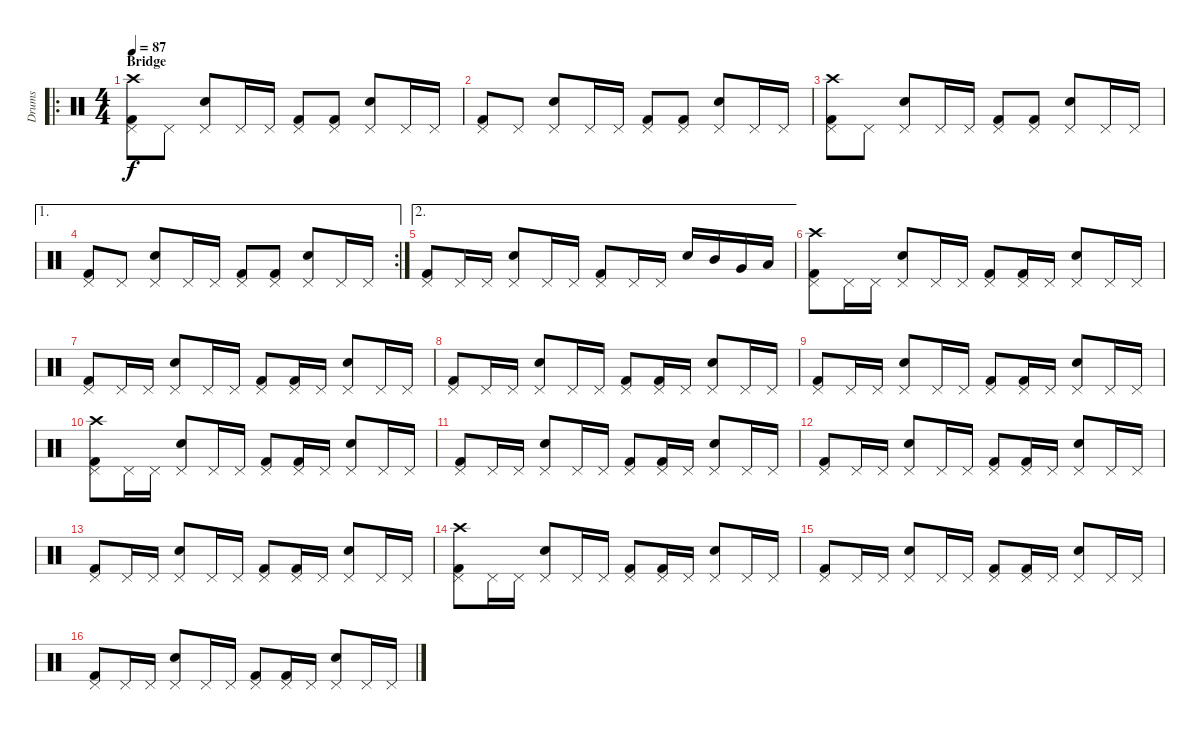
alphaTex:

\track ("Drums" "Drums") {instrument percussion}
\staff {score}
\articulation defaults
\ro
\ts (4 4)
\section ("" "Bridge")
\tempo 87
\clef neutral
\ks c
("Kick (hit) 2" "Pedal Hi-Hat (hit)" "Crash high (hit)").8{dy f} "Pedal Hi-Hat (hit)".8 ("Snare (hit) 2" "Pedal Hi-Hat (hit)").8 "Pedal Hi-Hat (hit)".16 "Pedal Hi-Hat (hit)".16 ("Kick (hit) 2" "Pedal Hi-Hat (hit)").8 ("Kick (hit) 2" "Pedal Hi-Hat (hit)").8 ("Snare (hit) 2" "Pedal Hi-Hat (hit)").8 "Pedal Hi-Hat (hit)".16 "Pedal Hi-Hat (hit)".16 |
("Kick (hit) 2" "Pedal Hi-Hat (hit)").8 "Pedal Hi-Hat (hit)".8 ("Snare (hit) 2" "Pedal Hi-Hat (hit)").8 "Pedal Hi-Hat (hit)".16 "Pedal Hi-Hat (hit)".16 ("Kick (hit) 2" "Pedal Hi-Hat (hit)").8 ("Kick (hit) 2" "Pedal Hi-Hat (hit)").8 ("Snare (hit) 2" "Pedal Hi-Hat (hit)").8 "Pedal Hi-Hat (hit)".16 "Pedal Hi-Hat (hit)".16 |
("Kick (hit) 2" "Pedal Hi-Hat (hit)" "Crash high (hit)").8 "Pedal Hi-Hat (hit)".8 ("Snare (hit) 2" "Pedal Hi-Hat (hit)").8 "Pedal Hi-Hat (hit)".16 "Pedal Hi-Hat (hit)".16 ("Kick (hit) 2" "Pedal Hi-Hat (hit)").8 ("Kick (hit) 2" "Pedal Hi-Hat (hit)").8 ("Snare (hit) 2" "Pedal Hi-Hat (hit)").8 "Pedal Hi-Hat (hit)".16 "Pedal Hi-Hat (hit)".16 |
\ae 1
\rc 2
("Kick (hit) 2" "Pedal Hi-Hat (hit)").8 "Pedal Hi-Hat (hit)".8 ("Snare (hit) 2" "Pedal Hi-Hat (hit)").8 "Pedal Hi-Hat (hit)".16 "Pedal Hi-Hat (hit)".16 ("Kick (hit) 2" "Pedal Hi-Hat (hit)").8 ("Kick (hit) 2" "Pedal Hi-Hat (hit)").8 ("Snare (hit) 2" "Pedal Hi-Hat (hit)").8 "Pedal Hi-Hat (hit)".16 "Pedal Hi-Hat (hit)".16 |
\ae 2
("Kick (hit) 2" "Pedal Hi-Hat (hit)").8 "Pedal Hi-Hat (hit)".16 "Pedal Hi-Hat (hit)".16 ("Snare (hit) 2" "Pedal Hi-Hat (hit)").8 "Pedal Hi-Hat (hit)".16 "Pedal Hi-Hat (hit)".16 ("Kick (hit) 2" "Pedal Hi-Hat (hit)").8 "Pedal Hi-Hat (hit)".16 "Pedal Hi-Hat (hit)".16 "Snare (hit) 2".16 "Mid Tom (hit)".16 "Very Low Tom (hit)".16 "Low Floor Tom (hit)".16 |
("Kick (hit) 2" "Pedal Hi-Hat (hit)" "Crash high (hit)").8 "Pedal Hi-Hat (hit)".16 "Pedal Hi-Hat (hit)".16 ("Snare (hit) 2" "Pedal Hi-Hat (hit)").8 "Pedal Hi-Hat (hit)".16 "Pedal Hi-Hat (hit)".16 ("Kick (hit) 2" "Pedal Hi-Hat (hit)").8 ("Kick (hit) 2" "Pedal Hi-Hat (hit)").16 "Pedal Hi-Hat (hit)".16 ("Snare (hit) 2" "Pedal Hi-Hat (hit)").8 "Pedal Hi-Hat (hit)".16 "Pedal Hi-Hat (hit)".16 |
("Kick (hit) 2" "Pedal Hi-Hat (hit)").8 "Pedal Hi-Hat (hit)".16 "Pedal Hi-Hat (hit)".16 ("Snare (hit) 2" "Pedal Hi-Hat (hit)").8 "Pedal Hi-Hat (hit)".16 "Pedal Hi-Hat (hit)".16 ("Kick (hit) 2" "Pedal Hi-Hat (hit)").8 ("Kick (hit) 2" "Pedal Hi-Hat (hit)").16 "Pedal Hi-Hat (hit)".16 ("Snare (hit) 2" "Pedal Hi-Hat (hit)").8 "Pedal Hi-Hat (hit)".16 "Pedal Hi-Hat (hit)".16 |
("Kick (hit) 2" "Pedal Hi-Hat (hit)").8 "Pedal Hi-Hat (hit)".16 "Pedal Hi-Hat (hit)".16 ("Snare (hit) 2" "Pedal Hi-Hat (hit)").8 "Pedal Hi-Hat (hit)".16 "Pedal Hi-Hat (hit)".16 ("Kick (hit) 2" "Pedal Hi-Hat (hit)").8 ("Kick (hit) 2" "Pedal Hi-Hat (hit)").16 "Pedal Hi-Hat (hit)".16 ("Snare (hit) 2" "Pedal Hi-Hat (hit)").8 "Pedal Hi-Hat (hit)".16 "Pedal Hi-Hat (hit)".16 |
("Kick (hit) 2" "Pedal Hi-Hat (hit)").8 "Pedal Hi-Hat (hit)".16 "Pedal Hi-Hat (hit)".16 ("Snare (hit) 2" "Pedal Hi-Hat (hit)").8 "Pedal Hi-Hat (hit)".16 "Pedal Hi-Hat (hit)".16 ("Kick (hit) 2" "Pedal Hi-Hat (hit)").8 ("Kick (hit) 2" "Pedal Hi-Hat (hit)").16 "Pedal Hi-Hat (hit)".16 ("Snare (hit) 2" "Pedal Hi-Hat (hit)").8 "Pedal Hi-Hat (hit)".16 "Pedal Hi-Hat (hit)".16 |
("Kick (hit) 2" "Pedal Hi-Hat (hit)" "Crash high (hit)").8 "Pedal Hi-Hat (hit)".16 "Pedal Hi-Hat (hit)".16 ("Snare (hit) 2" "Pedal Hi-Hat (hit)").8 "Pedal Hi-Hat (hit)".16 "Pedal Hi-Hat (hit)".16 ("Kick (hit) 2" "Pedal Hi-Hat (hit)").8 ("Kick (hit) 2" "Pedal Hi-Hat (hit)").16 "Pedal Hi-Hat (hit)".16 ("Snare (hit) 2" "Pedal Hi-Hat (hit)").8 "Pedal Hi-Hat (hit)".16 "Pedal Hi-Hat (hit)".16 |
("Kick (hit) 2" "Pedal Hi-Hat (hit)").8 "Pedal Hi-Hat (hit)".16 "Pedal Hi-Hat (hit)".16 ("Snare (hit) 2" "Pedal Hi-Hat (hit)").8 "Pedal Hi-Hat (hit)".16 "Pedal Hi-Hat (hit)".16 ("Kick (hit) 2" "Pedal Hi-Hat (hit)").8 ("Kick (hit) 2" "Pedal Hi-Hat (hit)").16 "Pedal Hi-Hat (hit)".16 ("Snare (hit) 2" "Pedal Hi-Hat (hit)").8 "Pedal Hi-Hat (hit)".16 "Pedal Hi-Hat (hit)".16 |
("Kick (hit) 2" "Pedal Hi-Hat (hit)").8 "Pedal Hi-Hat (hit)".16 "Pedal Hi-Hat (hit)".16 ("Snare (hit) 2" "Pedal Hi-Hat (hit)").8 "Pedal Hi-Hat (hit)".16 "Pedal Hi-Hat (hit)".16 ("Kick (hit) 2" "Pedal Hi-Hat (hit)").8 ("Kick (hit) 2" "Pedal Hi-Hat (hit)").16 "Pedal Hi-Hat (hit)".16 ("Snare (hit) 2" "Pedal Hi-Hat (hit)").8 "Pedal Hi-Hat (hit)".16 "Pedal Hi-Hat (hit)".16 |
("Kick (hit) 2" "Pedal Hi-Hat (hit)").8 "Pedal Hi-Hat (hit)".16 "Pedal Hi-Hat (hit)".16 ("Snare (hit) 2" "Pedal Hi-Hat (hit)").8 "Pedal Hi-Hat (hit)".16 "Pedal Hi-Hat (hit)".16 ("Kick (hit) 2" "Pedal Hi-Hat (hit)").8 ("Kick (hit) 2" "Pedal Hi-Hat (hit)").16 "Pedal Hi-Hat (hit)".16 ("Snare (hit) 2" "Pedal Hi-Hat (hit)").8 "Pedal Hi-Hat (hit)".16 "Pedal Hi-Hat (hit)".16 |
("Kick (hit) 2" "Pedal Hi-Hat (hit)" "Crash high (hit)").8 "Pedal Hi-Hat (hit)".16 "Pedal Hi-Hat (hit)".16 ("Snare (hit) 2" "Pedal Hi-Hat (hit)").8 "Pedal Hi-Hat (hit)".16 "Pedal Hi-Hat (hit)".16 ("Kick (hit) 2" "Pedal Hi-Hat (hit)").8 ("Kick (hit) 2" "Pedal Hi-Hat (hit)").16 "Pedal Hi-Hat (hit)".16 ("Snare (hit) 2" "Pedal Hi-Hat (hit)").8 "Pedal Hi-Hat (hit)".16 "Pedal Hi-Hat (hit)".16 |
("Kick (hit) 2" "Pedal Hi-Hat (hit)").8 "Pedal Hi-Hat (hit)".16 "Pedal Hi-Hat (hit)".16 ("Snare (hit) 2" "Pedal Hi-Hat (hit)").8 "Pedal Hi-Hat (hit)".16 "Pedal Hi-Hat (hit)".16 ("Kick (hit) 2" "Pedal Hi-Hat (hit)").8 ("Kick (hit) 2" "Pedal Hi-Hat (hit)").16 "Pedal Hi-Hat (hit)".16 ("Snare (hit) 2" "Pedal Hi-Hat (hit)").8 "Pedal Hi-Hat (hit)".16 "Pedal Hi-Hat (hit)".16 |
("Kick (hit) 2" "Pedal Hi-Hat (hit)").8 "Pedal Hi-Hat (hit)".16 "Pedal Hi-Hat (hit)".16 ("Snare (hit) 2" "Pedal Hi-Hat (hit)").8 "Pedal Hi-Hat (hit)".16 "Pedal Hi-Hat (hit)".16 ("Kick (hit) 2" "Pedal Hi-Hat (hit)").8 ("Kick (hit) 2" "Pedal Hi-Hat (hit)").16 "Pedal Hi-Hat (hit)".16 ("Snare (hit) 2" "Pedal Hi-Hat (hit)").8 "Pedal Hi-Hat (hit)".16 "Pedal Hi-Hat (hit)".16
